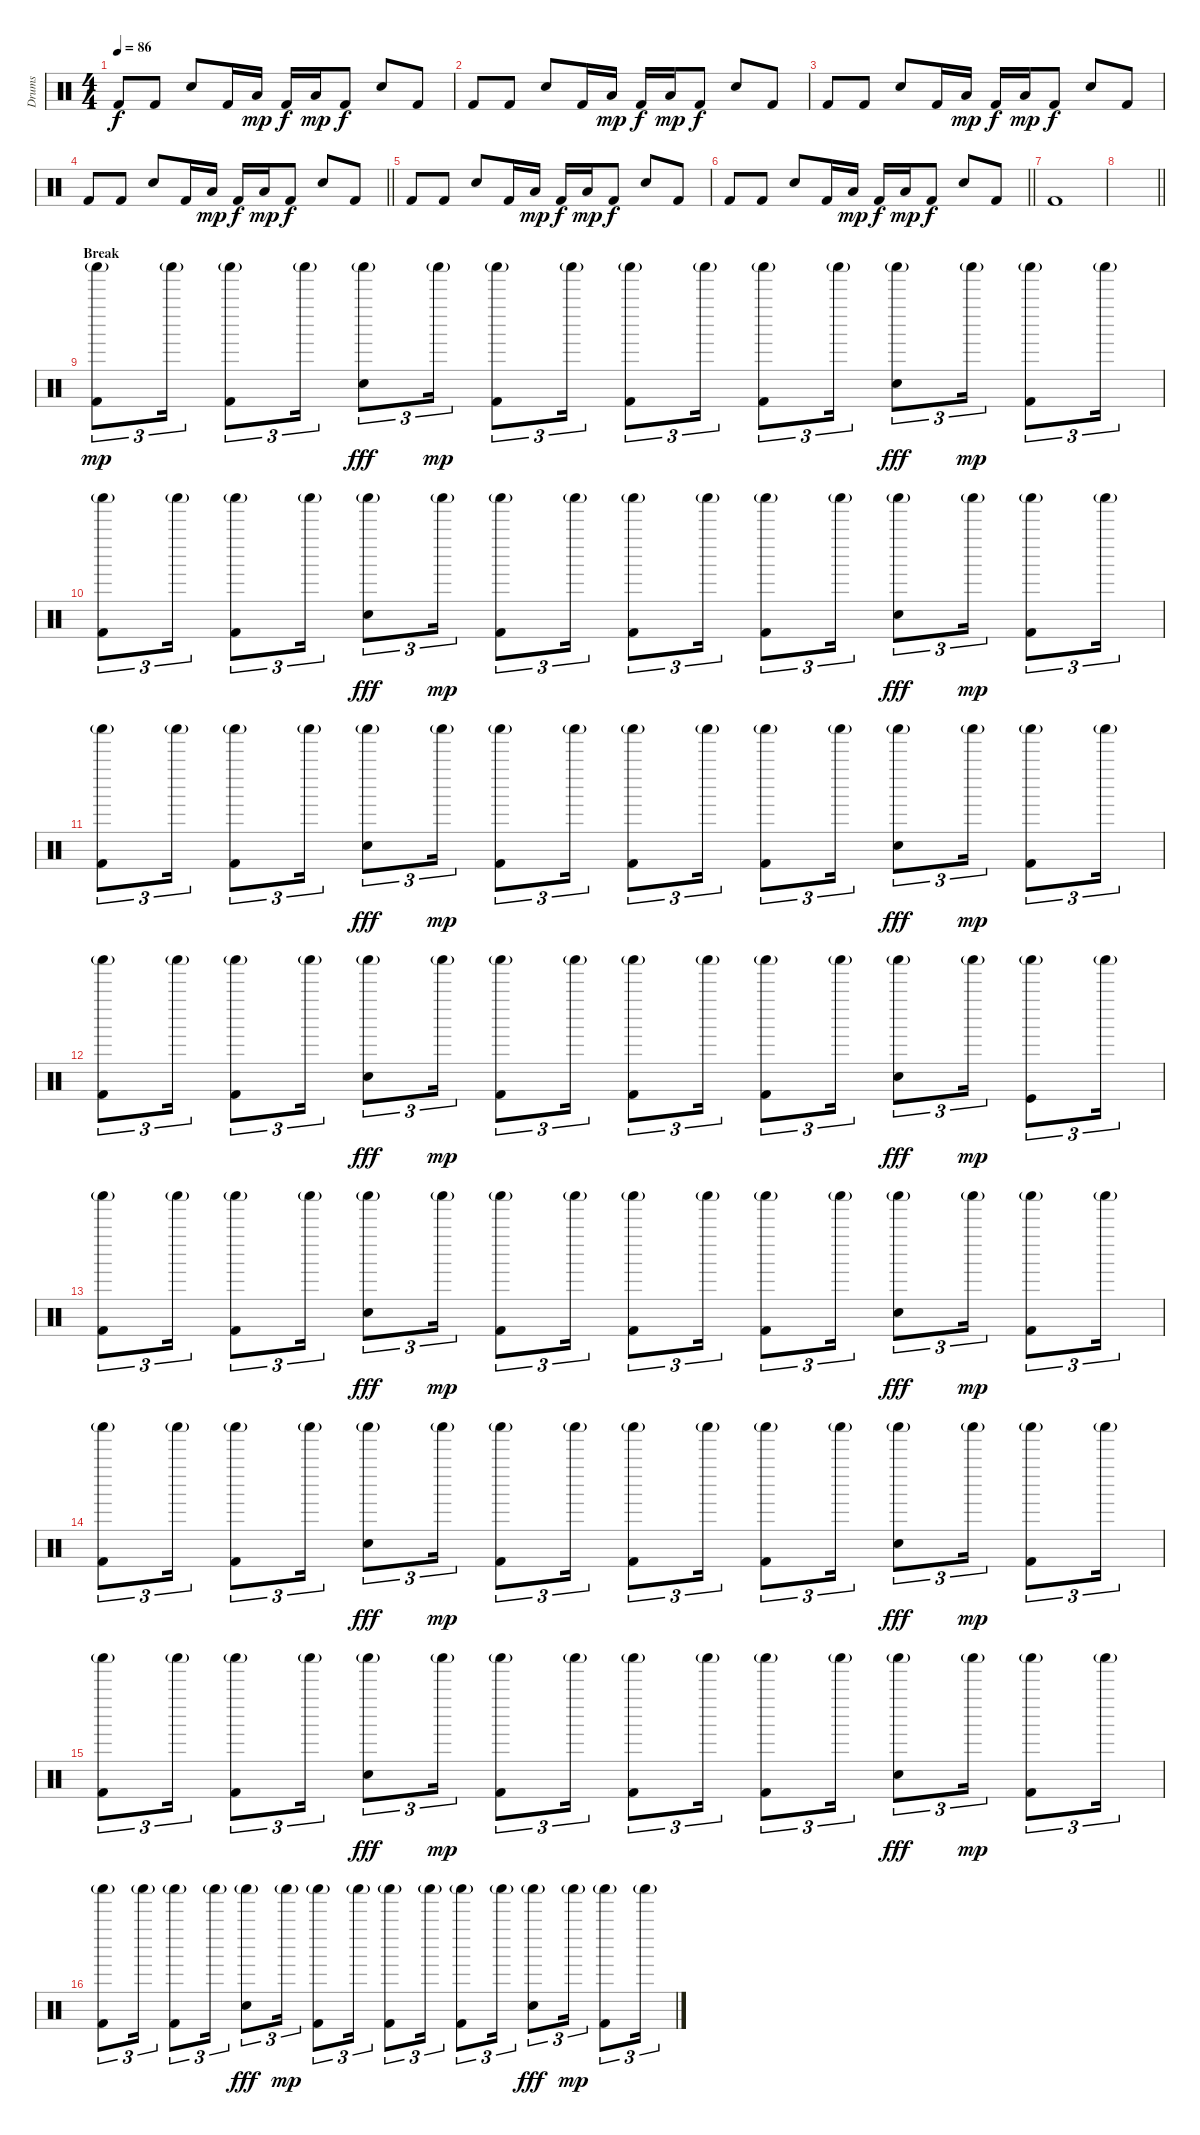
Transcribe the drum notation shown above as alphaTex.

\track ("Drums" "Drums") {instrument percussion}
\staff {score}
\articulation defaults
\ts (4 4)
\tempo 86
\clef neutral
\ks c "Kick (hit) 2".8{dy f} "Kick (hit) 2".8 "Electric Snare (hit)".8 "Kick (hit) 2".16 "Low Floor Tom (hit)".16{dy mp} "Kick (hit) 2".16{dy f} "Low Floor Tom (hit)".16{dy mp} "Kick (hit) 2".8{dy f} "Electric Snare (hit)".8 "Kick (hit) 2".8
|
"Kick (hit) 2".8 "Kick (hit) 2".8 "Electric Snare (hit)".8 "Kick (hit) 2".16 "Low Floor Tom (hit)".16{dy mp} "Kick (hit) 2".16{dy f} "Low Floor Tom (hit)".16{dy mp} "Kick (hit) 2".8{dy f} "Electric Snare (hit)".8 "Kick (hit) 2".8 |
"Kick (hit) 2".8 "Kick (hit) 2".8 "Electric Snare (hit)".8 "Kick (hit) 2".16 "Low Floor Tom (hit)".16{dy mp} "Kick (hit) 2".16{dy f} "Low Floor Tom (hit)".16{dy mp} "Kick (hit) 2".8{dy f} "Electric Snare (hit)".8 "Kick (hit) 2".8 |
\barLineRight lightlight "Kick (hit) 2".8 "Kick (hit) 2".8 "Electric Snare (hit)".8 "Kick (hit) 2".16 "Low Floor Tom (hit)".16{dy mp} "Kick (hit) 2".16{dy f} "Low Floor Tom (hit)".16{dy mp} "Kick (hit) 2".8{dy f} "Electric Snare (hit)".8 "Kick (hit) 2".8
|
"Kick (hit) 2".8 "Kick (hit) 2".8 "Electric Snare (hit)".8 "Kick (hit) 2".16 "Low Floor Tom (hit)".16{dy mp} "Kick (hit) 2".16{dy f} "Low Floor Tom (hit)".16{dy mp} "Kick (hit) 2".8{dy f} "Electric Snare (hit)".8 "Kick (hit) 2".8 |
\barLineRight lightlight "Kick (hit) 2".8 "Kick (hit) 2".8 "Electric Snare (hit)".8 "Kick (hit) 2".16 "Low Floor Tom (hit)".16{dy mp} "Kick (hit) 2".16{dy f} "Low Floor Tom (hit)".16{dy mp} "Kick (hit) 2".8{dy f} "Electric Snare (hit)".8 "Kick (hit) 2".8
|
"Kick (hit) 2".1 |
\barLineRight lightlight
|
\section ("" "Break")
("Shaker (hit)"{g} "Kick (hit) 2").8{tu (3 2) dy mp} "Shaker (hit)"{g}.16{tu (3 2)} ("Shaker (hit)"{g} "Kick (hit) 2").8{tu (3 2)} "Shaker (hit)"{g}.16{tu (3 2)} ("Shaker (hit)"{g} "Electric Snare (hit)").8{tu (3 2) dy fff} "Shaker (hit)"{g}.16{tu (3 2) dy mp} ("Shaker (hit)"{g} "Kick (hit) 2").8{tu (3 2)} "Shaker (hit)"{g}.16{tu (3 2)} ("Shaker (hit)"{g} "Kick (hit) 2").8{tu (3 2)} "Shaker (hit)"{g}.16{tu (3 2)} ("Shaker (hit)"{g} "Kick (hit) 2").8{tu (3 2)} "Shaker (hit)"{g}.16{tu (3 2)} ("Shaker (hit)"{g} "Electric Snare (hit)").8{tu (3 2) dy fff} "Shaker (hit)"{g}.16{tu (3 2) dy mp} ("Shaker (hit)"{g} "Kick (hit) 2").8{tu (3 2)} "Shaker (hit)"{g}.16{tu (3 2)} |
("Shaker (hit)"{g} "Kick (hit) 2").8{tu (3 2)} "Shaker (hit)"{g}.16{tu (3 2)} ("Shaker (hit)"{g} "Kick (hit) 2").8{tu (3 2)} "Shaker (hit)"{g}.16{tu (3 2)} ("Shaker (hit)"{g} "Electric Snare (hit)").8{tu (3 2) dy fff} "Shaker (hit)"{g}.16{tu (3 2) dy mp} ("Shaker (hit)"{g} "Kick (hit) 2").8{tu (3 2)} "Shaker (hit)"{g}.16{tu (3 2)} ("Shaker (hit)"{g} "Kick (hit) 2").8{tu (3 2)} "Shaker (hit)"{g}.16{tu (3 2)} ("Shaker (hit)"{g} "Kick (hit) 2").8{tu (3 2)} "Shaker (hit)"{g}.16{tu (3 2)} ("Shaker (hit)"{g} "Electric Snare (hit)").8{tu (3 2) dy fff} "Shaker (hit)"{g}.16{tu (3 2) dy mp} ("Shaker (hit)"{g} "Kick (hit) 2").8{tu (3 2)} "Shaker (hit)"{g}.16{tu (3 2)} |
("Shaker (hit)"{g} "Kick (hit) 2").8{tu (3 2)} "Shaker (hit)"{g}.16{tu (3 2)} ("Shaker (hit)"{g} "Kick (hit) 2").8{tu (3 2)} "Shaker (hit)"{g}.16{tu (3 2)} ("Shaker (hit)"{g} "Electric Snare (hit)").8{tu (3 2) dy fff} "Shaker (hit)"{g}.16{tu (3 2) dy mp} ("Shaker (hit)"{g} "Kick (hit) 2").8{tu (3 2)} "Shaker (hit)"{g}.16{tu (3 2)} ("Shaker (hit)"{g} "Kick (hit) 2").8{tu (3 2)} "Shaker (hit)"{g}.16{tu (3 2)} ("Shaker (hit)"{g} "Kick (hit) 2").8{tu (3 2)} "Shaker (hit)"{g}.16{tu (3 2)} ("Shaker (hit)"{g} "Electric Snare (hit)").8{tu (3 2) dy fff} "Shaker (hit)"{g}.16{tu (3 2) dy mp} ("Shaker (hit)"{g} "Kick (hit) 2").8{tu (3 2)} "Shaker (hit)"{g}.16{tu (3 2)} |
("Shaker (hit)"{g} "Kick (hit) 2").8{tu (3 2)} "Shaker (hit)"{g}.16{tu (3 2)} ("Shaker (hit)"{g} "Kick (hit) 2").8{tu (3 2)} "Shaker (hit)"{g}.16{tu (3 2)} ("Shaker (hit)"{g} "Electric Snare (hit)").8{tu (3 2) dy fff} "Shaker (hit)"{g}.16{tu (3 2) dy mp} ("Shaker (hit)"{g} "Kick (hit) 2").8{tu (3 2)} "Shaker (hit)"{g}.16{tu (3 2)} ("Shaker (hit)"{g} "Kick (hit) 2").8{tu (3 2)} "Shaker (hit)"{g}.16{tu (3 2)} ("Shaker (hit)"{g} "Kick (hit) 2").8{tu (3 2)} "Shaker (hit)"{g}.16{tu (3 2)} ("Shaker (hit)"{g} "Electric Snare (hit)").8{tu (3 2) dy fff} "Shaker (hit)"{g}.16{tu (3 2) dy mp} ("Shaker (hit)"{g} "Kick (hit)").8{tu (3 2)} "Shaker (hit)"{g}.16{tu (3 2)} |
("Shaker (hit)"{g} "Kick (hit) 2").8{tu (3 2)} "Shaker (hit)"{g}.16{tu (3 2)} ("Shaker (hit)"{g} "Kick (hit) 2").8{tu (3 2)} "Shaker (hit)"{g}.16{tu (3 2)} ("Shaker (hit)"{g} "Electric Snare (hit)").8{tu (3 2) dy fff} "Shaker (hit)"{g}.16{tu (3 2) dy mp} ("Shaker (hit)"{g} "Kick (hit) 2").8{tu (3 2)} "Shaker (hit)"{g}.16{tu (3 2)} ("Shaker (hit)"{g} "Kick (hit) 2").8{tu (3 2)} "Shaker (hit)"{g}.16{tu (3 2)} ("Shaker (hit)"{g} "Kick (hit) 2").8{tu (3 2)} "Shaker (hit)"{g}.16{tu (3 2)} ("Shaker (hit)"{g} "Electric Snare (hit)").8{tu (3 2) dy fff} "Shaker (hit)"{g}.16{tu (3 2) dy mp} ("Shaker (hit)"{g} "Kick (hit) 2").8{tu (3 2)} "Shaker (hit)"{g}.16{tu (3 2)} |
("Shaker (hit)"{g} "Kick (hit) 2").8{tu (3 2)} "Shaker (hit)"{g}.16{tu (3 2)} ("Shaker (hit)"{g} "Kick (hit) 2").8{tu (3 2)} "Shaker (hit)"{g}.16{tu (3 2)} ("Shaker (hit)"{g} "Electric Snare (hit)").8{tu (3 2) dy fff} "Shaker (hit)"{g}.16{tu (3 2) dy mp} ("Shaker (hit)"{g} "Kick (hit) 2").8{tu (3 2)} "Shaker (hit)"{g}.16{tu (3 2)} ("Shaker (hit)"{g} "Kick (hit) 2").8{tu (3 2)} "Shaker (hit)"{g}.16{tu (3 2)} ("Shaker (hit)"{g} "Kick (hit) 2").8{tu (3 2)} "Shaker (hit)"{g}.16{tu (3 2)} ("Shaker (hit)"{g} "Electric Snare (hit)").8{tu (3 2) dy fff} "Shaker (hit)"{g}.16{tu (3 2) dy mp} ("Shaker (hit)"{g} "Kick (hit) 2").8{tu (3 2)} "Shaker (hit)"{g}.16{tu (3 2)} |
("Shaker (hit)"{g} "Kick (hit) 2").8{tu (3 2)} "Shaker (hit)"{g}.16{tu (3 2)} ("Shaker (hit)"{g} "Kick (hit) 2").8{tu (3 2)} "Shaker (hit)"{g}.16{tu (3 2)} ("Shaker (hit)"{g} "Electric Snare (hit)").8{tu (3 2) dy fff} "Shaker (hit)"{g}.16{tu (3 2) dy mp} ("Shaker (hit)"{g} "Kick (hit) 2").8{tu (3 2)} "Shaker (hit)"{g}.16{tu (3 2)} ("Shaker (hit)"{g} "Kick (hit) 2").8{tu (3 2)} "Shaker (hit)"{g}.16{tu (3 2)} ("Shaker (hit)"{g} "Kick (hit) 2").8{tu (3 2)} "Shaker (hit)"{g}.16{tu (3 2)} ("Shaker (hit)"{g} "Electric Snare (hit)").8{tu (3 2) dy fff} "Shaker (hit)"{g}.16{tu (3 2) dy mp} ("Shaker (hit)"{g} "Kick (hit) 2").8{tu (3 2)} "Shaker (hit)"{g}.16{tu (3 2)} |
("Shaker (hit)"{g} "Kick (hit) 2").8{tu (3 2)} "Shaker (hit)"{g}.16{tu (3 2)} ("Shaker (hit)"{g} "Kick (hit) 2").8{tu (3 2)} "Shaker (hit)"{g}.16{tu (3 2)} ("Shaker (hit)"{g} "Electric Snare (hit)").8{tu (3 2) dy fff} "Shaker (hit)"{g}.16{tu (3 2) dy mp} ("Shaker (hit)"{g} "Kick (hit) 2").8{tu (3 2)} "Shaker (hit)"{g}.16{tu (3 2)} ("Shaker (hit)"{g} "Kick (hit) 2").8{tu (3 2)} "Shaker (hit)"{g}.16{tu (3 2)} ("Shaker (hit)"{g} "Kick (hit) 2").8{tu (3 2)} "Shaker (hit)"{g}.16{tu (3 2)} ("Shaker (hit)"{g} "Electric Snare (hit)").8{tu (3 2) dy fff} "Shaker (hit)"{g}.16{tu (3 2) dy mp} ("Shaker (hit)"{g} "Kick (hit) 2").8{tu (3 2)} "Shaker (hit)"{g}.16{tu (3 2)}
